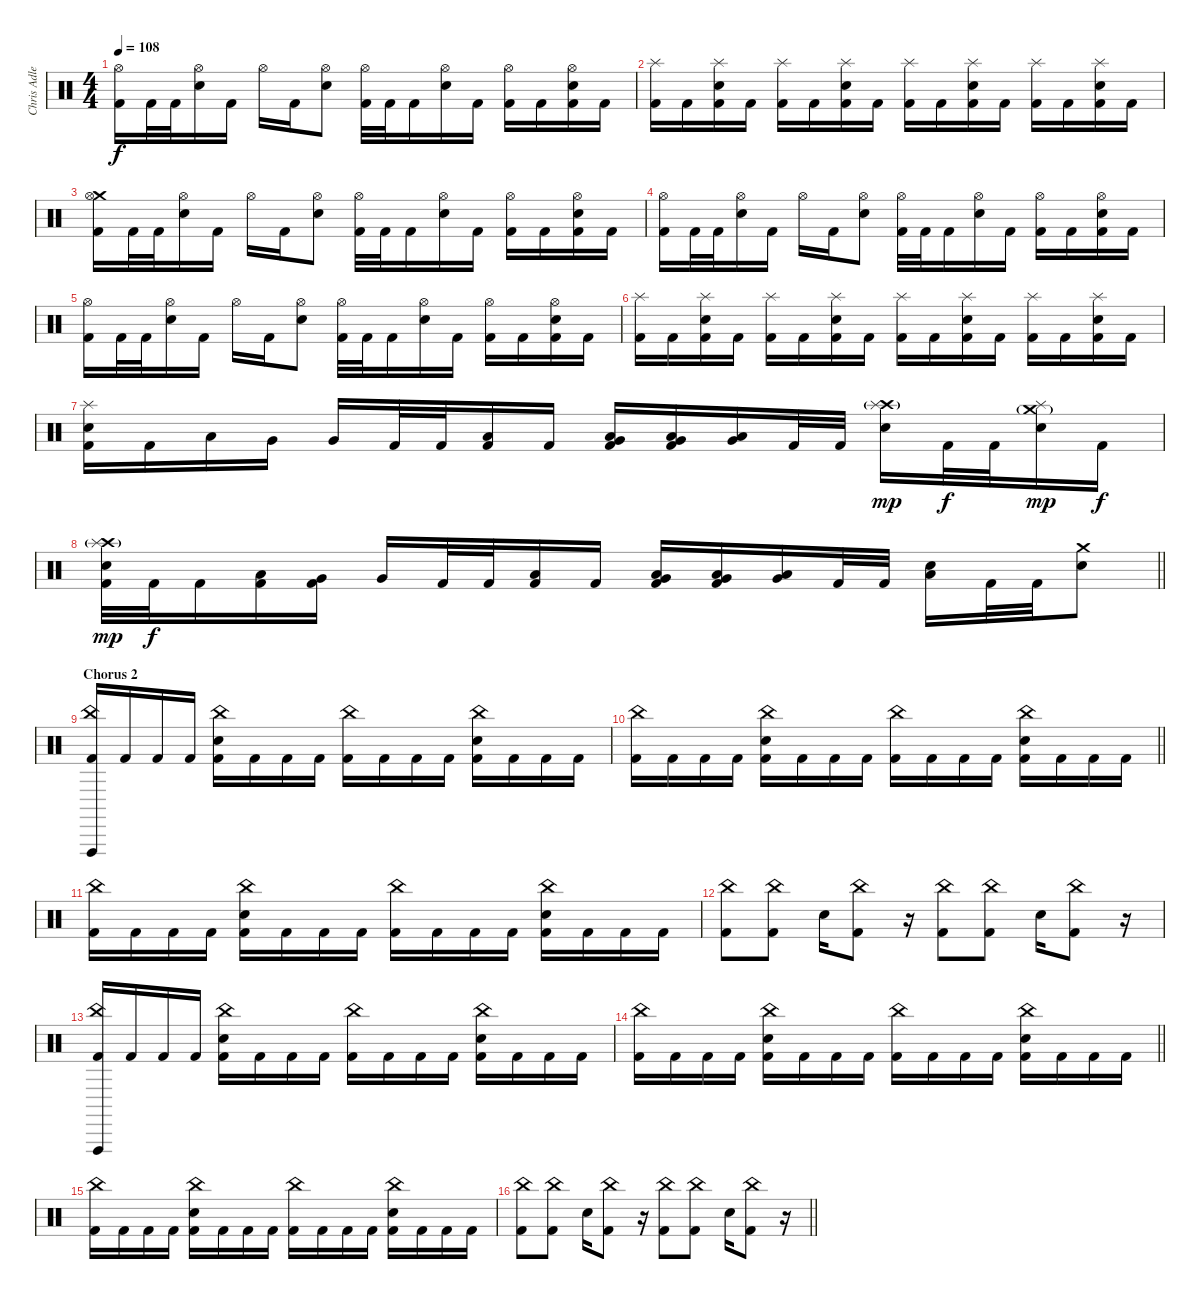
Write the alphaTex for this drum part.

\track ("Chris Adler" "Chris Adle") {instrument percussion}
\staff {score}
\articulation defaults
\ts (4 4)
\tempo 108
\clef neutral
\ks c
("Hi-Hat (open)" "Kick (hit) 2").16{dy f} "Kick (hit) 2".32 "Kick (hit) 2".32 ("Hi-Hat (open)" "Electric Snare (hit)").16 "Kick (hit) 2".16 "Hi-Hat (open)".16 "Kick (hit) 2".16 ("Hi-Hat (open)" "Electric Snare (hit)").8 ("Hi-Hat (open)" "Kick (hit) 2").32 "Kick (hit) 2".32 "Kick (hit) 2".16 ("Hi-Hat (open)" "Electric Snare (hit)").16 "Kick (hit) 2".16 ("Hi-Hat (open)" "Kick (hit) 2").16 "Kick (hit) 2".16 ("Hi-Hat (open)" "Electric Snare (hit)" "Kick (hit) 2").16 "Kick (hit) 2".16 |
("Splash (hit)" "Kick (hit) 2").16 "Kick (hit) 2".16 ("Splash (hit)" "Electric Snare (hit)" "Kick (hit) 2").16 "Kick (hit) 2".16 ("Splash (hit)" "Kick (hit) 2").16 "Kick (hit) 2".16 ("Splash (hit)" "Electric Snare (hit)" "Kick (hit) 2").16 "Kick (hit) 2".16 ("Splash (hit)" "Kick (hit) 2").16 "Kick (hit) 2".16 ("Splash (hit)" "Electric Snare (hit)" "Kick (hit) 2").16 "Kick (hit) 2".16 ("Splash (hit)" "Kick (hit) 2").16 "Kick (hit) 2".16 ("Splash (hit)" "Electric Snare (hit)" "Kick (hit) 2").16 "Kick (hit) 2".16 |
("Crash medium (hit)" "Hi-Hat (open)" "Kick (hit) 2").16 "Kick (hit) 2".32 "Kick (hit) 2".32 ("Hi-Hat (open)" "Electric Snare (hit)").16 "Kick (hit) 2".16 "Hi-Hat (open)".16 "Kick (hit) 2".16 ("Hi-Hat (open)" "Electric Snare (hit)").8 ("Hi-Hat (open)" "Kick (hit) 2").32 "Kick (hit) 2".32 "Kick (hit) 2".16 ("Hi-Hat (open)" "Electric Snare (hit)").16 "Kick (hit) 2".16 ("Hi-Hat (open)" "Kick (hit) 2").16 "Kick (hit) 2".16 ("Hi-Hat (open)" "Electric Snare (hit)" "Kick (hit) 2").16 "Kick (hit) 2".16 |
("Hi-Hat (open)" "Kick (hit) 2").16 "Kick (hit) 2".32 "Kick (hit) 2".32 ("Hi-Hat (open)" "Electric Snare (hit)").16 "Kick (hit) 2".16 "Hi-Hat (open)".16 "Kick (hit) 2".16 ("Hi-Hat (open)" "Electric Snare (hit)").8 ("Hi-Hat (open)" "Kick (hit) 2").32 "Kick (hit) 2".32 "Kick (hit) 2".16 ("Hi-Hat (open)" "Electric Snare (hit)").16 "Kick (hit) 2".16 ("Hi-Hat (open)" "Kick (hit) 2").16 "Kick (hit) 2".16 ("Hi-Hat (open)" "Electric Snare (hit)" "Kick (hit) 2").16 "Kick (hit) 2".16 |
("Hi-Hat (open)" "Kick (hit) 2").16 "Kick (hit) 2".32 "Kick (hit) 2".32 ("Hi-Hat (open)" "Electric Snare (hit)").16 "Kick (hit) 2".16 "Hi-Hat (open)".16 "Kick (hit) 2".16 ("Hi-Hat (open)" "Electric Snare (hit)").8 ("Hi-Hat (open)" "Kick (hit) 2").32 "Kick (hit) 2".32 "Kick (hit) 2".16 ("Hi-Hat (open)" "Electric Snare (hit)").16 "Kick (hit) 2".16 ("Hi-Hat (open)" "Kick (hit) 2").16 "Kick (hit) 2".16 ("Hi-Hat (open)" "Electric Snare (hit)" "Kick (hit) 2").16 "Kick (hit) 2".16 |
("Splash (hit)" "Kick (hit) 2").16 "Kick (hit) 2".16 ("Splash (hit)" "Electric Snare (hit)" "Kick (hit) 2").16 "Kick (hit) 2".16 ("Splash (hit)" "Kick (hit) 2").16 "Kick (hit) 2".16 ("Splash (hit)" "Electric Snare (hit)" "Kick (hit) 2").16 "Kick (hit) 2".16 ("Splash (hit)" "Kick (hit) 2").16 "Kick (hit) 2".16 ("Splash (hit)" "Electric Snare (hit)" "Kick (hit) 2").16 "Kick (hit) 2".16 ("Splash (hit)" "Kick (hit) 2").16 "Kick (hit) 2".16 ("Splash (hit)" "Electric Snare (hit)" "Kick (hit) 2").16 "Kick (hit) 2".16 |
("Splash (hit)" "Electric Snare (hit)" "Kick (hit) 2").16 "Kick (hit) 2".16 "Low Tom (hit)".16 "Very Low Tom (hit)".16 "Very Low Tom (hit)".16 "Kick (hit) 2".32 "Kick (hit) 2".32 ("Low Floor Tom (hit)" "Kick (hit) 2").16 "Kick (hit) 2".16 ("Very Low Tom (hit)" "Low Floor Tom (hit)" "Kick (hit) 2").16 ("Very Low Tom (hit)" "Low Floor Tom (hit)" "Kick (hit) 2").16 ("Very Low Tom (hit)" "Low Floor Tom (hit)").16 "Kick (hit) 2".32 "Kick (hit) 2".32 ("Crash high (hit)"{g} "Splash (hit)" "Electric Snare (hit)").16{dy mp} "Kick (hit) 2".32{dy f} "Kick (hit) 2".32 ("Crash medium (hit)"{g} "Splash (hit)" "Electric Snare (hit)").16{dy mp} "Kick (hit) 2".16{dy f} |
\barLineRight lightlight
("Crash high (hit)"{g} "Splash (hit)" "Electric Snare (hit)" "Kick (hit) 2").32{dy mp} "Kick (hit) 2".32{dy f} "Kick (hit) 2".16 ("Low Tom (hit)" "Kick (hit) 2").16 ("Very Low Tom (hit)" "Kick (hit) 2").16 "Very Low Tom (hit)".16 "Kick (hit) 2".32 "Kick (hit) 2".32 ("Low Floor Tom (hit)" "Kick (hit) 2").16 "Kick (hit) 2".16 ("Very Low Tom (hit)" "Low Floor Tom (hit)" "Kick (hit) 2").16 ("Very Low Tom (hit)" "Low Floor Tom (hit)" "Kick (hit) 2").16 ("Very Low Tom (hit)" "Low Floor Tom (hit)").16 "Kick (hit) 2".32 "Kick (hit) 2".32 ("Electric Snare (hit)" "Low Floor Tom (hit)").16 "Kick (hit) 2".32 "Kick (hit) 2".32 ("Crash medium (hit)" "Electric Snare (hit)").8 |
\section ("" "Chorus 2")
("China (hit)" "Vibraslap (hit)" "Kick (hit) 2").16 "Kick (hit) 2".16 "Kick (hit) 2".16 "Kick (hit) 2".16 ("China (hit)" "Electric Snare (hit)" "Kick (hit) 2").16 "Kick (hit) 2".16 "Kick (hit) 2".16 "Kick (hit) 2".16 ("China (hit)" "Kick (hit) 2").16 "Kick (hit) 2".16 "Kick (hit) 2".16 "Kick (hit) 2".16 ("China (hit)" "Electric Snare (hit)" "Kick (hit) 2").16 "Kick (hit) 2".16 "Kick (hit) 2".16 "Kick (hit) 2".16 |
\barLineRight lightlight
("China (hit)" "Kick (hit) 2").16 "Kick (hit) 2".16 "Kick (hit) 2".16 "Kick (hit) 2".16 ("China (hit)" "Electric Snare (hit)" "Kick (hit) 2").16 "Kick (hit) 2".16 "Kick (hit) 2".16 "Kick (hit) 2".16 ("China (hit)" "Kick (hit) 2").16 "Kick (hit) 2".16 "Kick (hit) 2".16 "Kick (hit) 2".16 ("China (hit)" "Electric Snare (hit)" "Kick (hit) 2").16 "Kick (hit) 2".16 "Kick (hit) 2".16 "Kick (hit) 2".16 |
("China (hit)" "Kick (hit) 2").16 "Kick (hit) 2".16 "Kick (hit) 2".16 "Kick (hit) 2".16 ("China (hit)" "Electric Snare (hit)" "Kick (hit) 2").16 "Kick (hit) 2".16 "Kick (hit) 2".16 "Kick (hit) 2".16 ("China (hit)" "Kick (hit) 2").16 "Kick (hit) 2".16 "Kick (hit) 2".16 "Kick (hit) 2".16 ("China (hit)" "Electric Snare (hit)" "Kick (hit) 2").16 "Kick (hit) 2".16 "Kick (hit) 2".16 "Kick (hit) 2".16 |
("China (hit)" "Kick (hit) 2").8 ("China (hit)" "Kick (hit) 2").8 "Electric Snare (hit)".16 ("China (hit)" "Kick (hit) 2").8 r.16 ("China (hit)" "Kick (hit) 2").8 ("China (hit)" "Kick (hit) 2").8 "Electric Snare (hit)".16 ("China (hit)" "Kick (hit) 2").8 r.16 |
("China (hit)" "Vibraslap (hit)" "Kick (hit) 2").16 "Kick (hit) 2".16 "Kick (hit) 2".16 "Kick (hit) 2".16 ("China (hit)" "Electric Snare (hit)" "Kick (hit) 2").16 "Kick (hit) 2".16 "Kick (hit) 2".16 "Kick (hit) 2".16 ("China (hit)" "Kick (hit) 2").16 "Kick (hit) 2".16 "Kick (hit) 2".16 "Kick (hit) 2".16 ("China (hit)" "Electric Snare (hit)" "Kick (hit) 2").16 "Kick (hit) 2".16 "Kick (hit) 2".16 "Kick (hit) 2".16 |
\barLineRight lightlight
("China (hit)" "Kick (hit) 2").16 "Kick (hit) 2".16 "Kick (hit) 2".16 "Kick (hit) 2".16 ("China (hit)" "Electric Snare (hit)" "Kick (hit) 2").16 "Kick (hit) 2".16 "Kick (hit) 2".16 "Kick (hit) 2".16 ("China (hit)" "Kick (hit) 2").16 "Kick (hit) 2".16 "Kick (hit) 2".16 "Kick (hit) 2".16 ("China (hit)" "Electric Snare (hit)" "Kick (hit) 2").16 "Kick (hit) 2".16 "Kick (hit) 2".16 "Kick (hit) 2".16 |
("China (hit)" "Kick (hit) 2").16 "Kick (hit) 2".16 "Kick (hit) 2".16 "Kick (hit) 2".16 ("China (hit)" "Electric Snare (hit)" "Kick (hit) 2").16 "Kick (hit) 2".16 "Kick (hit) 2".16 "Kick (hit) 2".16 ("China (hit)" "Kick (hit) 2").16 "Kick (hit) 2".16 "Kick (hit) 2".16 "Kick (hit) 2".16 ("China (hit)" "Electric Snare (hit)" "Kick (hit) 2").16 "Kick (hit) 2".16 "Kick (hit) 2".16 "Kick (hit) 2".16 |
\barLineRight lightlight
("China (hit)" "Kick (hit) 2").8 ("China (hit)" "Kick (hit) 2").8 "Electric Snare (hit)".16 ("China (hit)" "Kick (hit) 2").8 r.16 ("China (hit)" "Kick (hit) 2").8 ("China (hit)" "Kick (hit) 2").8 "Electric Snare (hit)".16 ("China (hit)" "Kick (hit) 2").8 r.16
